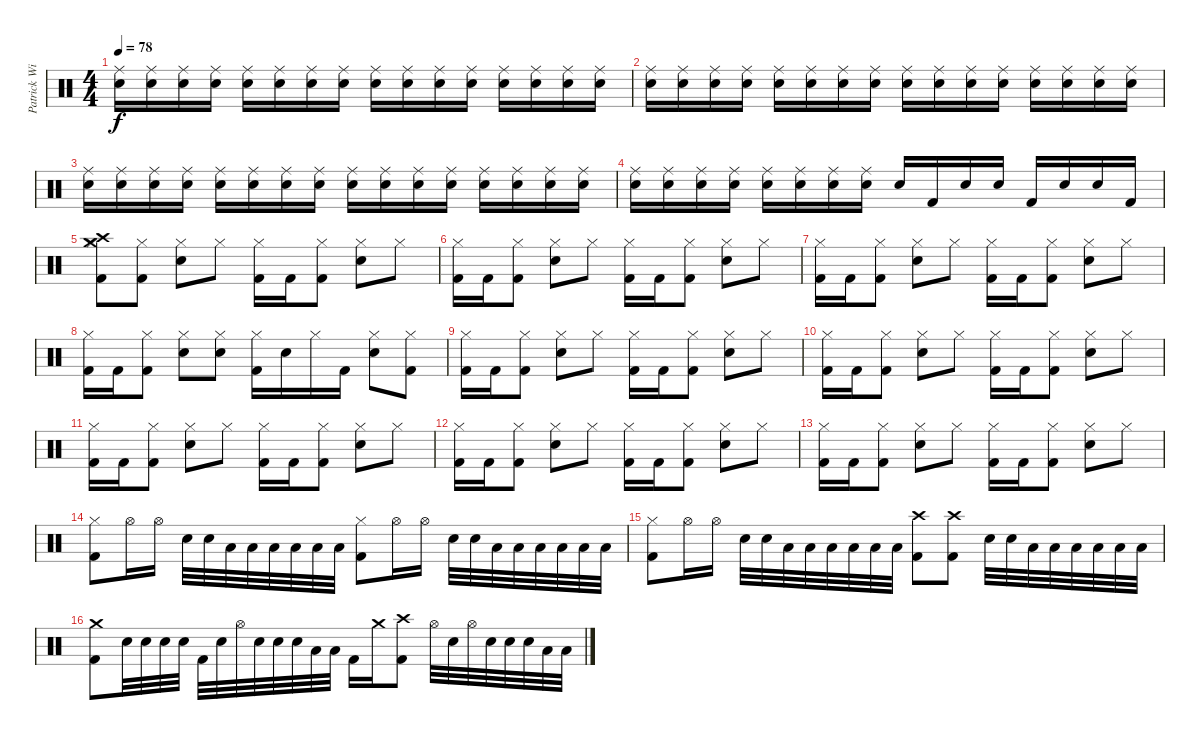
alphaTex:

\track ("Patrick Wilson" "Patrick Wi") {instrument percussion}
\staff {score}
\articulation defaults
\ts (4 4)
\tempo 78
\clef neutral
\ks c
("Ride (middle)" "Snare (hit) 2").16{dy f} ("Ride (middle)" "Snare (hit) 2").16 ("Ride (middle)" "Snare (hit) 2").16 ("Ride (middle)" "Snare (hit) 2").16 ("Ride (middle)" "Snare (hit) 2").16 ("Ride (middle)" "Snare (hit) 2").16 ("Ride (middle)" "Snare (hit) 2").16 ("Ride (middle)" "Snare (hit) 2").16 ("Ride (middle)" "Snare (hit) 2").16 ("Ride (middle)" "Snare (hit) 2").16 ("Ride (middle)" "Snare (hit) 2").16 ("Ride (middle)" "Snare (hit) 2").16 ("Ride (middle)" "Snare (hit) 2").16 ("Ride (middle)" "Snare (hit) 2").16 ("Ride (middle)" "Snare (hit) 2").16 ("Ride (middle)" "Snare (hit) 2").16 |
("Ride (middle)" "Snare (hit) 2").16 ("Ride (middle)" "Snare (hit) 2").16 ("Ride (middle)" "Snare (hit) 2").16 ("Ride (middle)" "Snare (hit) 2").16 ("Ride (middle)" "Snare (hit) 2").16 ("Ride (middle)" "Snare (hit) 2").16 ("Ride (middle)" "Snare (hit) 2").16 ("Ride (middle)" "Snare (hit) 2").16 ("Ride (middle)" "Snare (hit) 2").16 ("Ride (middle)" "Snare (hit) 2").16 ("Ride (middle)" "Snare (hit) 2").16 ("Ride (middle)" "Snare (hit) 2").16 ("Ride (middle)" "Snare (hit) 2").16 ("Ride (middle)" "Snare (hit) 2").16 ("Ride (middle)" "Snare (hit) 2").16 ("Ride (middle)" "Snare (hit) 2").16 |
("Ride (middle)" "Snare (hit) 2").16 ("Ride (middle)" "Snare (hit) 2").16 ("Ride (middle)" "Snare (hit) 2").16 ("Ride (middle)" "Snare (hit) 2").16 ("Ride (middle)" "Snare (hit) 2").16 ("Ride (middle)" "Snare (hit) 2").16 ("Ride (middle)" "Snare (hit) 2").16 ("Ride (middle)" "Snare (hit) 2").16 ("Ride (middle)" "Snare (hit) 2").16 ("Ride (middle)" "Snare (hit) 2").16 ("Ride (middle)" "Snare (hit) 2").16 ("Ride (middle)" "Snare (hit) 2").16 ("Ride (middle)" "Snare (hit) 2").16 ("Ride (middle)" "Snare (hit) 2").16 ("Ride (middle)" "Snare (hit) 2").16 ("Ride (middle)" "Snare (hit) 2").16 |
("Ride (middle)" "Snare (hit) 2").16 ("Ride (middle)" "Snare (hit) 2").16 ("Ride (middle)" "Snare (hit) 2").16 ("Ride (middle)" "Snare (hit) 2").16 ("Ride (middle)" "Snare (hit) 2").16 ("Ride (middle)" "Snare (hit) 2").16 ("Ride (middle)" "Snare (hit) 2").16 ("Ride (middle)" "Snare (hit) 2").16 "Snare (hit) 2".16 "Kick (hit) 2".16 "Snare (hit) 2".16 "Snare (hit) 2".16 "Kick (hit) 2".16 "Snare (hit) 2".16 "Snare (hit) 2".16 "Kick (hit) 2".16 |
("Crash high (hit)" "Crash medium (hit)" "Kick (hit) 2" "Hi-Hat (closed)").8 ("Kick (hit) 2" "Hi-Hat (closed)").8 ("Snare (hit) 2" "Hi-Hat (closed)").8 "Hi-Hat (closed)".8 ("Kick (hit) 2" "Hi-Hat (closed)").16 "Kick (hit) 2".16 ("Kick (hit) 2" "Hi-Hat (closed)").8 ("Snare (hit) 2" "Hi-Hat (closed)").8 "Hi-Hat (closed)".8 |
("Kick (hit) 2" "Hi-Hat (closed)").16 "Kick (hit) 2".16 ("Kick (hit) 2" "Hi-Hat (closed)").8 ("Snare (hit) 2" "Hi-Hat (closed)").8 "Hi-Hat (closed)".8 ("Kick (hit) 2" "Hi-Hat (closed)").16 "Kick (hit) 2".16 ("Kick (hit) 2" "Hi-Hat (closed)").8 ("Snare (hit) 2" "Hi-Hat (closed)").8 "Hi-Hat (closed)".8 |
("Kick (hit) 2" "Hi-Hat (closed)").16 "Kick (hit) 2".16 ("Kick (hit) 2" "Hi-Hat (closed)").8 ("Snare (hit) 2" "Hi-Hat (closed)").8 "Hi-Hat (closed)".8 ("Kick (hit) 2" "Hi-Hat (closed)").16 "Kick (hit) 2".16 ("Kick (hit) 2" "Hi-Hat (closed)").8 ("Snare (hit) 2" "Hi-Hat (closed)").8 "Hi-Hat (closed)".8 |
("Kick (hit) 2" "Hi-Hat (closed)").16 "Kick (hit) 2".16 ("Kick (hit) 2" "Hi-Hat (closed)").8 ("Snare (hit) 2" "Hi-Hat (closed)").8 ("Snare (hit) 2" "Hi-Hat (closed)").8 ("Kick (hit) 2" "Hi-Hat (closed)").16 "Snare (hit) 2".16 "Hi-Hat (closed)".16 "Kick (hit) 2".16 ("Snare (hit) 2" "Hi-Hat (closed)").8 ("Kick (hit) 2" "Hi-Hat (closed)").8 |
("Kick (hit) 2" "Hi-Hat (closed)").16 "Kick (hit) 2".16 ("Kick (hit) 2" "Hi-Hat (closed)").8 ("Snare (hit) 2" "Hi-Hat (closed)").8 "Hi-Hat (closed)".8 ("Kick (hit) 2" "Hi-Hat (closed)").16 "Kick (hit) 2".16 ("Kick (hit) 2" "Hi-Hat (closed)").8 ("Snare (hit) 2" "Hi-Hat (closed)").8 "Hi-Hat (closed)".8 |
("Kick (hit) 2" "Hi-Hat (closed)").16 "Kick (hit) 2".16 ("Kick (hit) 2" "Hi-Hat (closed)").8 ("Snare (hit) 2" "Hi-Hat (closed)").8 "Hi-Hat (closed)".8 ("Kick (hit) 2" "Hi-Hat (closed)").16 "Kick (hit) 2".16 ("Kick (hit) 2" "Hi-Hat (closed)").8 ("Snare (hit) 2" "Hi-Hat (closed)").8 "Hi-Hat (closed)".8 |
("Kick (hit) 2" "Hi-Hat (closed)").16 "Kick (hit) 2".16 ("Kick (hit) 2" "Hi-Hat (closed)").8 ("Snare (hit) 2" "Hi-Hat (closed)").8 "Hi-Hat (closed)".8 ("Kick (hit) 2" "Hi-Hat (closed)").16 "Kick (hit) 2".16 ("Kick (hit) 2" "Hi-Hat (closed)").8 ("Snare (hit) 2" "Hi-Hat (closed)").8 "Hi-Hat (closed)".8 |
("Kick (hit) 2" "Hi-Hat (closed)").16 "Kick (hit) 2".16 ("Kick (hit) 2" "Hi-Hat (closed)").8 ("Snare (hit) 2" "Hi-Hat (closed)").8 "Hi-Hat (closed)".8 ("Kick (hit) 2" "Hi-Hat (closed)").16 "Kick (hit) 2".16 ("Kick (hit) 2" "Hi-Hat (closed)").8 ("Snare (hit) 2" "Hi-Hat (closed)").8 "Hi-Hat (closed)".8 |
("Kick (hit) 2" "Hi-Hat (closed)").16 "Kick (hit) 2".16 ("Kick (hit) 2" "Hi-Hat (closed)").8 ("Snare (hit) 2" "Hi-Hat (closed)").8 "Hi-Hat (closed)".8 ("Kick (hit) 2" "Hi-Hat (closed)").16 "Kick (hit) 2".16 ("Kick (hit) 2" "Hi-Hat (closed)").8 ("Snare (hit) 2" "Hi-Hat (closed)").8 "Hi-Hat (closed)".8 |
("Kick (hit) 2" "Hi-Hat (closed)").8 "Hi-Hat (open)".16 "Hi-Hat (open)".16 "Snare (hit) 2".32 "Snare (hit) 2".32 "Low Floor Tom (hit)".32 "Low Floor Tom (hit)".32 "Low Floor Tom (hit)".32 "Low Floor Tom (hit)".32 "Low Floor Tom (hit)".32 "Low Floor Tom (hit)".32 ("Kick (hit) 2" "Hi-Hat (closed)").8 "Hi-Hat (open)".16 "Hi-Hat (open)".16 "Snare (hit) 2".32 "Snare (hit) 2".32 "Low Floor Tom (hit)".32 "Low Floor Tom (hit)".32 "Low Floor Tom (hit)".32 "Low Floor Tom (hit)".32 "Low Floor Tom (hit)".32 "Low Floor Tom (hit)".32 |
("Kick (hit) 2" "Hi-Hat (closed)").8 "Hi-Hat (open)".16 "Hi-Hat (open)".16 "Snare (hit) 2".32 "Snare (hit) 2".32 "Low Floor Tom (hit)".32 "Low Floor Tom (hit)".32 "Low Floor Tom (hit)".32 "Low Floor Tom (hit)".32 "Low Floor Tom (hit)".32 "Low Floor Tom (hit)".32 ("Crash high (hit)" "Kick (hit) 2").8 ("Crash high (hit)" "Kick (hit) 2").8 "Snare (hit) 2".32 "Snare (hit) 2".32 "Low Floor Tom (hit)".32 "Low Floor Tom (hit)".32 "Low Floor Tom (hit)".32 "Low Floor Tom (hit)".32 "Low Floor Tom (hit)".32 "Low Floor Tom (hit)".32 |
("Crash medium (hit)" "Kick (hit) 2").8 "Snare (hit) 2".32 "Snare (hit) 2".32 "Snare (hit) 2".32 "Snare (hit) 2".32 "Kick (hit) 2".32 "Snare (hit) 2".32 "Hi-Hat (open)".32 "Snare (hit) 2".32 "Snare (hit) 2".32 "Snare (hit) 2".32 "Low Floor Tom (hit)".32 "Low Floor Tom (hit)".32 "Kick (hit) 2".16 "Crash medium (hit)".16 ("Crash high (hit)" "Kick (hit) 2").8 "Hi-Hat (open)".32 "Snare (hit) 2".32 "Hi-Hat (open)".32 "Snare (hit) 2".32 "Snare (hit) 2".32 "Snare (hit) 2".32 "Low Floor Tom (hit)".32 "Low Floor Tom (hit)".32
